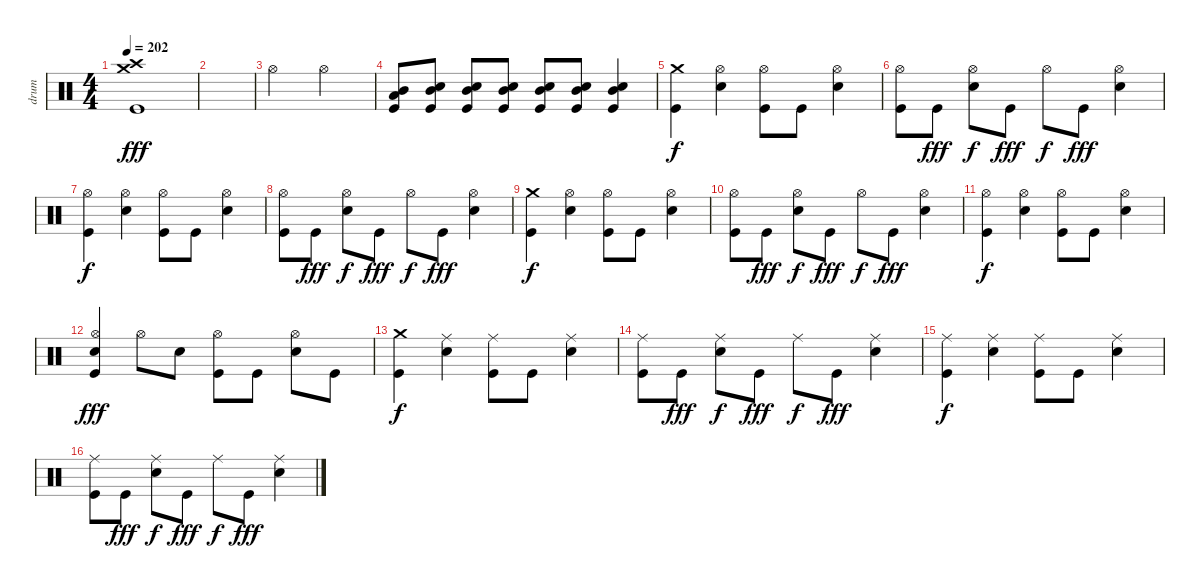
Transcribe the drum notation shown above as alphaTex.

\track ("drum" "drum") {instrument percussion}
\staff {score}
\articulation defaults
\ts (4 4)
\tempo 202
\clef neutral
\ks c
("Crash high (hit)" "Crash medium (hit)" "Kick (hit)").1{dy fff} |
|
"Hi-Hat (open)".2 "Hi-Hat (open)".2 |
("Low Floor Tom (hit)" "Mid Tom (hit)" "Kick (hit)").8 ("Electric Snare (hit)" "Mid Tom (hit)" "Kick (hit)").8 ("Electric Snare (hit)" "Mid Tom (hit)" "Kick (hit)").8 ("Electric Snare (hit)" "Mid Tom (hit)" "Kick (hit)").8 ("Electric Snare (hit)" "Mid Tom (hit)" "Kick (hit)").8 ("Electric Snare (hit)" "Mid Tom (hit)" "Kick (hit)").8 ("Electric Snare (hit)" "Mid Tom (hit)" "Kick (hit)").4 |
("Crash medium (hit)" "Kick (hit)").4{dy f} ("Hi-Hat (open)" "Electric Snare (hit)").4 ("Hi-Hat (open)" "Kick (hit)").8 "Kick (hit)".8 ("Hi-Hat (open)" "Electric Snare (hit)").4 |
("Hi-Hat (open)" "Kick (hit)").8 "Kick (hit)".8{dy fff} ("Hi-Hat (open)" "Electric Snare (hit)").8{dy f} "Kick (hit)".8{dy fff} "Hi-Hat (open)".8{dy f} "Kick (hit)".8{dy fff} ("Hi-Hat (open)" "Electric Snare (hit)").4 |
("Hi-Hat (open)" "Kick (hit)").4{dy f} ("Hi-Hat (open)" "Electric Snare (hit)").4 ("Hi-Hat (open)" "Kick (hit)").8 "Kick (hit)".8 ("Hi-Hat (open)" "Electric Snare (hit)").4 |
("Hi-Hat (open)" "Kick (hit)").8 "Kick (hit)".8{dy fff} ("Hi-Hat (open)" "Electric Snare (hit)").8{dy f} "Kick (hit)".8{dy fff} "Hi-Hat (open)".8{dy f} "Kick (hit)".8{dy fff} ("Hi-Hat (open)" "Electric Snare (hit)").4 |
("Crash medium (hit)" "Kick (hit)").4{dy f} ("Hi-Hat (open)" "Electric Snare (hit)").4 ("Hi-Hat (open)" "Kick (hit)").8 "Kick (hit)".8 ("Hi-Hat (open)" "Electric Snare (hit)").4 |
("Hi-Hat (open)" "Kick (hit)").8 "Kick (hit)".8{dy fff} ("Hi-Hat (open)" "Electric Snare (hit)").8{dy f} "Kick (hit)".8{dy fff} "Hi-Hat (open)".8{dy f} "Kick (hit)".8{dy fff} ("Hi-Hat (open)" "Electric Snare (hit)").4 |
("Hi-Hat (open)" "Kick (hit)").4{dy f} ("Hi-Hat (open)" "Electric Snare (hit)").4 ("Hi-Hat (open)" "Kick (hit)").8 "Kick (hit)".8 ("Hi-Hat (open)" "Electric Snare (hit)").4 |
("Hi-Hat (open)" "Electric Snare (hit)" "Kick (hit)").4{dy fff} "Hi-Hat (open)".8 "Electric Snare (hit)".8 ("Hi-Hat (open)" "Kick (hit)").8 "Kick (hit)".8 ("Hi-Hat (open)" "Electric Snare (hit)").8 "Kick (hit)".8 |
("Crash medium (hit)" "Kick (hit)").4{dy f} ("Ride (middle)" "Electric Snare (hit)").4 ("Ride (middle)" "Kick (hit)").8 "Kick (hit)".8 ("Ride (middle)" "Electric Snare (hit)").4 |
("Ride (middle)" "Kick (hit)").8 "Kick (hit)".8{dy fff} ("Ride (middle)" "Electric Snare (hit)").8{dy f} "Kick (hit)".8{dy fff} "Ride (middle)".8{dy f} "Kick (hit)".8{dy fff} ("Ride (middle)" "Electric Snare (hit)").4 |
("Ride (middle)" "Kick (hit)").4{dy f} ("Ride (middle)" "Electric Snare (hit)").4 ("Ride (middle)" "Kick (hit)").8 "Kick (hit)".8 ("Ride (middle)" "Electric Snare (hit)").4 |
("Ride (middle)" "Kick (hit)").8 "Kick (hit)".8{dy fff} ("Ride (middle)" "Electric Snare (hit)").8{dy f} "Kick (hit)".8{dy fff} "Ride (middle)".8{dy f} "Kick (hit)".8{dy fff} ("Ride (middle)" "Electric Snare (hit)").4
